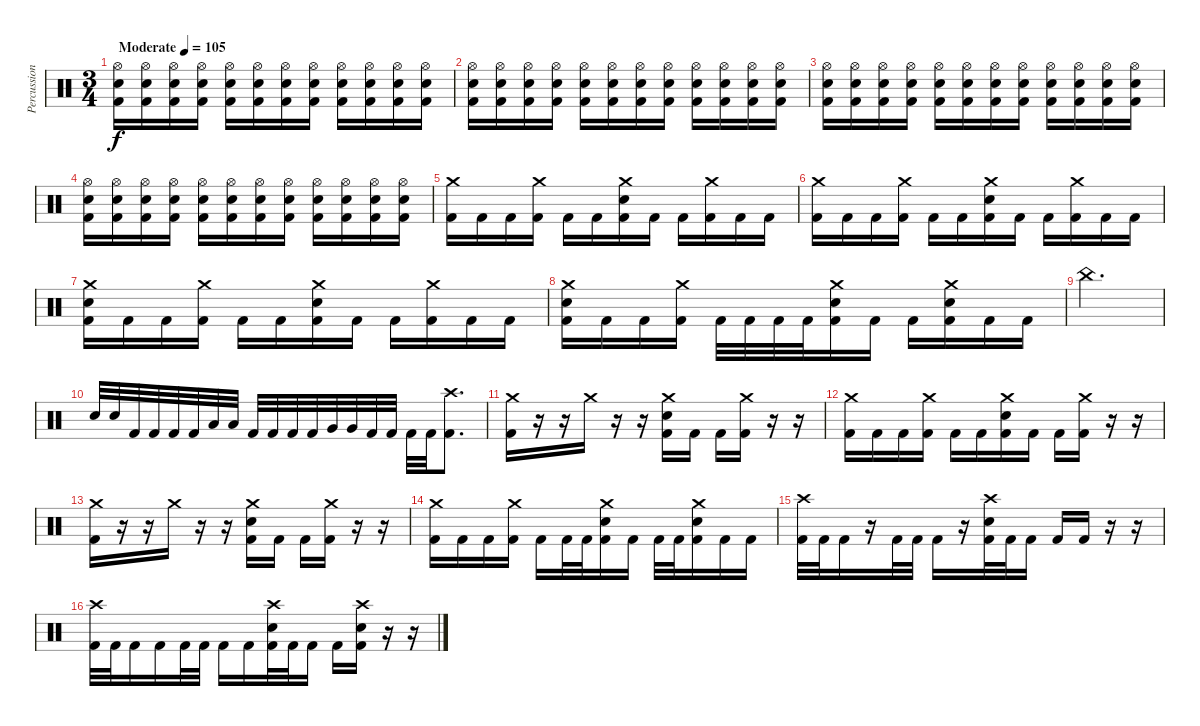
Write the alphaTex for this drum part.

\track ("Percussion" "Percussion") {instrument percussion}
\staff {score}
\articulation defaults
\ts (3 4)
\tempo (105 "Moderate")
\clef neutral
\ks c
("Hi-Hat (open)" "Electric Snare (hit)" "Kick (hit) 2").16{dy f} ("Hi-Hat (open)" "Electric Snare (hit)" "Kick (hit) 2").16 ("Hi-Hat (open)" "Electric Snare (hit)" "Kick (hit) 2").16 ("Hi-Hat (open)" "Electric Snare (hit)" "Kick (hit) 2").16 ("Hi-Hat (open)" "Electric Snare (hit)" "Kick (hit) 2").16 ("Hi-Hat (open)" "Electric Snare (hit)" "Kick (hit) 2").16 ("Hi-Hat (open)" "Electric Snare (hit)" "Kick (hit) 2").16 ("Hi-Hat (open)" "Electric Snare (hit)" "Kick (hit) 2").16 ("Hi-Hat (open)" "Electric Snare (hit)" "Kick (hit) 2").16 ("Hi-Hat (open)" "Electric Snare (hit)" "Kick (hit) 2").16 ("Hi-Hat (open)" "Electric Snare (hit)" "Kick (hit) 2").16 ("Hi-Hat (open)" "Electric Snare (hit)" "Kick (hit) 2").16 |
("Hi-Hat (open)" "Electric Snare (hit)" "Kick (hit) 2").16 ("Hi-Hat (open)" "Electric Snare (hit)" "Kick (hit) 2").16 ("Hi-Hat (open)" "Electric Snare (hit)" "Kick (hit) 2").16 ("Hi-Hat (open)" "Electric Snare (hit)" "Kick (hit) 2").16 ("Hi-Hat (open)" "Electric Snare (hit)" "Kick (hit) 2").16 ("Hi-Hat (open)" "Electric Snare (hit)" "Kick (hit) 2").16 ("Hi-Hat (open)" "Electric Snare (hit)" "Kick (hit) 2").16 ("Hi-Hat (open)" "Electric Snare (hit)" "Kick (hit) 2").16 ("Hi-Hat (open)" "Electric Snare (hit)" "Kick (hit) 2").16 ("Hi-Hat (open)" "Electric Snare (hit)" "Kick (hit) 2").16 ("Hi-Hat (open)" "Electric Snare (hit)" "Kick (hit) 2").16 ("Hi-Hat (open)" "Electric Snare (hit)" "Kick (hit) 2").16 |
("Hi-Hat (open)" "Electric Snare (hit)" "Kick (hit) 2").16 ("Hi-Hat (open)" "Electric Snare (hit)" "Kick (hit) 2").16 ("Hi-Hat (open)" "Electric Snare (hit)" "Kick (hit) 2").16 ("Hi-Hat (open)" "Electric Snare (hit)" "Kick (hit) 2").16 ("Hi-Hat (open)" "Electric Snare (hit)" "Kick (hit) 2").16 ("Hi-Hat (open)" "Electric Snare (hit)" "Kick (hit) 2").16 ("Hi-Hat (open)" "Electric Snare (hit)" "Kick (hit) 2").16 ("Hi-Hat (open)" "Electric Snare (hit)" "Kick (hit) 2").16 ("Hi-Hat (open)" "Electric Snare (hit)" "Kick (hit) 2").16 ("Hi-Hat (open)" "Electric Snare (hit)" "Kick (hit) 2").16 ("Hi-Hat (open)" "Electric Snare (hit)" "Kick (hit) 2").16 ("Hi-Hat (open)" "Electric Snare (hit)" "Kick (hit) 2").16 |
("Hi-Hat (open)" "Electric Snare (hit)" "Kick (hit) 2").16 ("Hi-Hat (open)" "Electric Snare (hit)" "Kick (hit) 2").16 ("Hi-Hat (open)" "Electric Snare (hit)" "Kick (hit) 2").16 ("Hi-Hat (open)" "Electric Snare (hit)" "Kick (hit) 2").16 ("Hi-Hat (open)" "Electric Snare (hit)" "Kick (hit) 2").16 ("Hi-Hat (open)" "Electric Snare (hit)" "Kick (hit) 2").16 ("Hi-Hat (open)" "Electric Snare (hit)" "Kick (hit) 2").16 ("Hi-Hat (open)" "Electric Snare (hit)" "Kick (hit) 2").16 ("Hi-Hat (open)" "Electric Snare (hit)" "Kick (hit) 2").16 ("Hi-Hat (open)" "Electric Snare (hit)" "Kick (hit) 2").16 ("Hi-Hat (open)" "Electric Snare (hit)" "Kick (hit) 2").16 ("Hi-Hat (open)" "Electric Snare (hit)" "Kick (hit) 2").16 |
("Crash medium (hit)" "Kick (hit) 2").16 "Kick (hit) 2".16 "Kick (hit) 2".16 ("Crash medium (hit)" "Kick (hit) 2").16 "Kick (hit) 2".16 "Kick (hit) 2".16 ("Crash medium (hit)" "Electric Snare (hit)" "Kick (hit) 2").16 "Kick (hit) 2".16 "Kick (hit) 2".16 ("Crash medium (hit)" "Kick (hit) 2").16 "Kick (hit) 2".16 "Kick (hit) 2".16 |
("Crash medium (hit)" "Kick (hit) 2").16 "Kick (hit) 2".16 "Kick (hit) 2".16 ("Crash medium (hit)" "Kick (hit) 2").16 "Kick (hit) 2".16 "Kick (hit) 2".16 ("Crash medium (hit)" "Electric Snare (hit)" "Kick (hit) 2").16 "Kick (hit) 2".16 "Kick (hit) 2".16 ("Crash medium (hit)" "Kick (hit) 2").16 "Kick (hit) 2".16 "Kick (hit) 2".16 |
("Crash medium (hit)" "Electric Snare (hit)" "Kick (hit) 2").16 "Kick (hit) 2".16 "Kick (hit) 2".16 ("Crash medium (hit)" "Kick (hit) 2").16 "Kick (hit) 2".16 "Kick (hit) 2".16 ("Crash medium (hit)" "Electric Snare (hit)" "Kick (hit) 2").16 "Kick (hit) 2".16 "Kick (hit) 2".16 ("Crash medium (hit)" "Kick (hit) 2").16 "Kick (hit) 2".16 "Kick (hit) 2".16 |
("Crash medium (hit)" "Electric Snare (hit)" "Kick (hit) 2").16 "Kick (hit) 2".16 "Kick (hit) 2".16 ("Crash medium (hit)" "Kick (hit) 2").16 "Kick (hit) 2".32 "Kick (hit) 2".32 "Kick (hit) 2".32 "Kick (hit) 2".32 ("Crash medium (hit)" "Electric Snare (hit)" "Kick (hit) 2").16 "Kick (hit) 2".16 "Kick (hit) 2".16 ("Crash medium (hit)" "Electric Snare (hit)" "Kick (hit) 2").16 "Kick (hit) 2".16 "Kick (hit) 2".16 |
"China (hit)".2{d} |
"Electric Snare (hit)".32 "Electric Snare (hit)".32 "Kick (hit) 2".32 "Kick (hit) 2".32 "Kick (hit) 2".32 "Kick (hit) 2".32 "Low Tom (hit)".32 "Low Tom (hit)".32 "Kick (hit) 2".32 "Kick (hit) 2".32 "Kick (hit) 2".32 "Kick (hit) 2".32 "Very Low Tom (hit)".32 "Very Low Tom (hit)".32 "Kick (hit) 2".32 "Kick (hit) 2".32 "Kick (hit) 2".32 "Kick (hit) 2".32 ("Crash high (hit)" "Kick (hit) 2").8{d} |
("Crash medium (hit)" "Kick (hit) 2").16 r.16 r.16 "Crash medium (hit)".16 r.16 r.16 ("Crash medium (hit)" "Electric Snare (hit)" "Kick (hit) 2").16 "Kick (hit) 2".16 "Kick (hit) 2".16 ("Crash medium (hit)" "Kick (hit) 2").16 r.16 r.16 |
("Crash medium (hit)" "Kick (hit) 2").16 "Kick (hit) 2".16 "Kick (hit) 2".16 ("Crash medium (hit)" "Kick (hit) 2").16 "Kick (hit) 2".16 "Kick (hit) 2".16 ("Crash medium (hit)" "Electric Snare (hit)" "Kick (hit) 2").16 "Kick (hit) 2".16 "Kick (hit) 2".16 ("Crash medium (hit)" "Kick (hit) 2").16 r.16 r.16 |
("Crash medium (hit)" "Kick (hit) 2").16 r.16 r.16 "Crash medium (hit)".16 r.16 r.16 ("Crash medium (hit)" "Electric Snare (hit)" "Kick (hit) 2").16 "Kick (hit) 2".16 "Kick (hit) 2".16 ("Crash medium (hit)" "Kick (hit) 2").16 r.16 r.16 |
("Crash medium (hit)" "Kick (hit) 2").16 "Kick (hit) 2".16 "Kick (hit) 2".16 ("Crash medium (hit)" "Kick (hit) 2").16 "Kick (hit) 2".16 "Kick (hit) 2".32 "Kick (hit) 2".32 ("Crash medium (hit)" "Electric Snare (hit)" "Kick (hit) 2").16 "Kick (hit) 2".16 "Kick (hit) 2".32 "Kick (hit) 2".32 ("Crash medium (hit)" "Electric Snare (hit)" "Kick (hit) 2").16 "Kick (hit) 2".16 "Kick (hit) 2".16 |
("Crash high (hit)" "Kick (hit) 2").32 "Kick (hit) 2".32 "Kick (hit) 2".16 r.16 "Kick (hit) 2".32 "Kick (hit) 2".32 "Kick (hit) 2".16 r.16 ("Crash high (hit)" "Electric Snare (hit)" "Kick (hit) 2").32 "Kick (hit) 2".32 "Kick (hit) 2".16 "Kick (hit) 2".16 "Kick (hit) 2".16 r.16 r.16 |
("Crash high (hit)" "Kick (hit) 2").32 "Kick (hit) 2".32 "Kick (hit) 2".16 "Kick (hit) 2".16 "Kick (hit) 2".32 "Kick (hit) 2".32 "Kick (hit) 2".16 "Kick (hit) 2".16 ("Crash high (hit)" "Electric Snare (hit)" "Kick (hit) 2").32 "Kick (hit) 2".32 "Kick (hit) 2".16 "Kick (hit) 2".16 ("Crash high (hit)" "Electric Snare (hit)" "Kick (hit) 2").16 r.16 r.16
